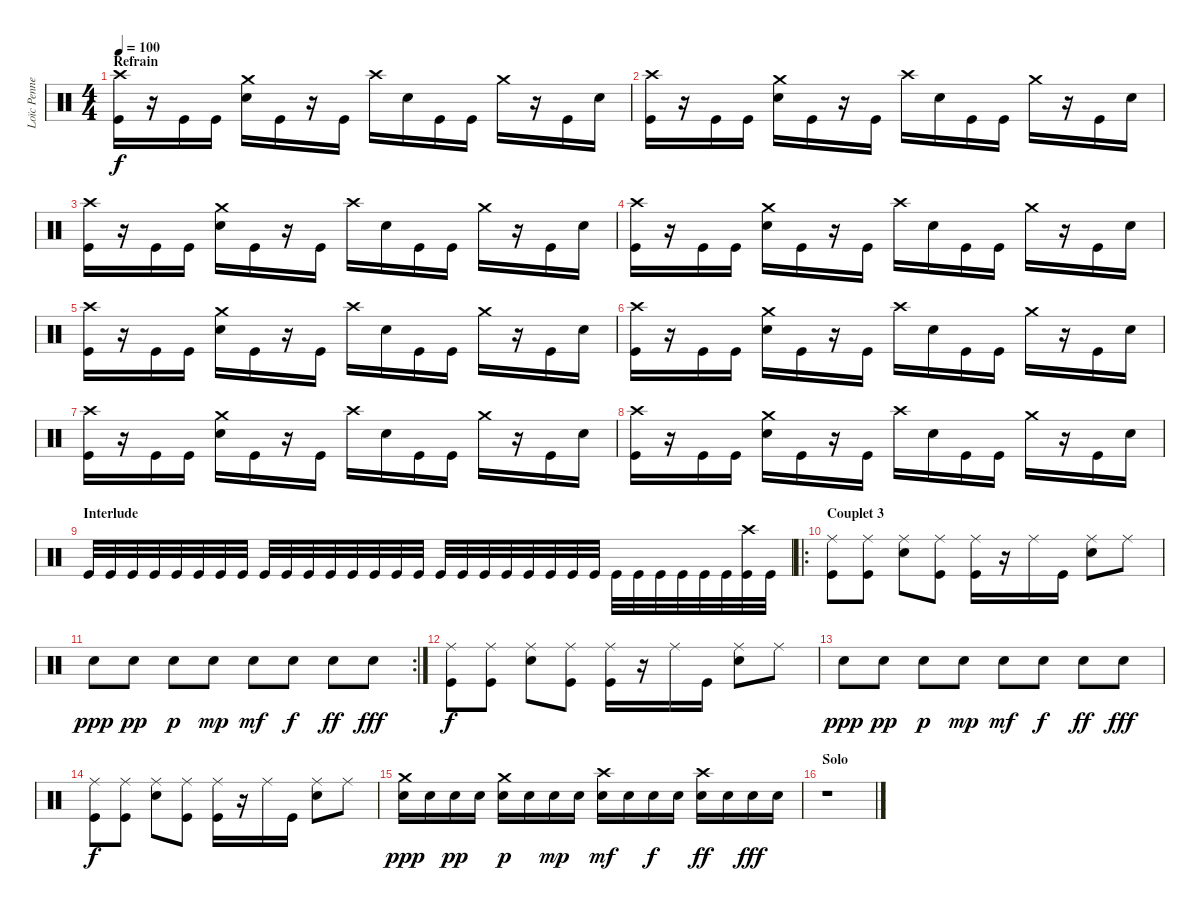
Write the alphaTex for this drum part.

\track ("Loïc Pennequin ( Batterie ) " "Loïc Penne") {instrument percussion}
\staff {score}
\articulation defaults
\ts (4 4)
\section ("" "Refrain")
\tempo 100
\clef neutral
\ks c
("Crash high (hit)" "Kick (hit)").16{dy f} r.16 "Kick (hit)".16 "Kick (hit)".16 ("Crash medium (hit)" "Electric Snare (hit)").16 "Kick (hit)".16 r.16 "Kick (hit)".16 "Crash high (hit)".16 "Electric Snare (hit)".16 "Kick (hit)".16 "Kick (hit)".16 "Crash medium (hit)".16 r.16 "Kick (hit)".16 "Electric Snare (hit)".16 |
("Crash high (hit)" "Kick (hit)").16 r.16 "Kick (hit)".16 "Kick (hit)".16 ("Crash medium (hit)" "Electric Snare (hit)").16 "Kick (hit)".16 r.16 "Kick (hit)".16 "Crash high (hit)".16 "Electric Snare (hit)".16 "Kick (hit)".16 "Kick (hit)".16 "Crash medium (hit)".16 r.16 "Kick (hit)".16 "Electric Snare (hit)".16 |
("Crash high (hit)" "Kick (hit)").16 r.16 "Kick (hit)".16 "Kick (hit)".16 ("Crash medium (hit)" "Electric Snare (hit)").16 "Kick (hit)".16 r.16 "Kick (hit)".16 "Crash high (hit)".16 "Electric Snare (hit)".16 "Kick (hit)".16 "Kick (hit)".16 "Crash medium (hit)".16 r.16 "Kick (hit)".16 "Electric Snare (hit)".16 |
("Crash high (hit)" "Kick (hit)").16 r.16 "Kick (hit)".16 "Kick (hit)".16 ("Crash medium (hit)" "Electric Snare (hit)").16 "Kick (hit)".16 r.16 "Kick (hit)".16 "Crash high (hit)".16 "Electric Snare (hit)".16 "Kick (hit)".16 "Kick (hit)".16 "Crash medium (hit)".16 r.16 "Kick (hit)".16 "Electric Snare (hit)".16 |
("Crash high (hit)" "Kick (hit)").16 r.16 "Kick (hit)".16 "Kick (hit)".16 ("Crash medium (hit)" "Electric Snare (hit)").16 "Kick (hit)".16 r.16 "Kick (hit)".16 "Crash high (hit)".16 "Electric Snare (hit)".16 "Kick (hit)".16 "Kick (hit)".16 "Crash medium (hit)".16 r.16 "Kick (hit)".16 "Electric Snare (hit)".16 |
("Crash high (hit)" "Kick (hit)").16 r.16 "Kick (hit)".16 "Kick (hit)".16 ("Crash medium (hit)" "Electric Snare (hit)").16 "Kick (hit)".16 r.16 "Kick (hit)".16 "Crash high (hit)".16 "Electric Snare (hit)".16 "Kick (hit)".16 "Kick (hit)".16 "Crash medium (hit)".16 r.16 "Kick (hit)".16 "Electric Snare (hit)".16 |
("Crash high (hit)" "Kick (hit)").16 r.16 "Kick (hit)".16 "Kick (hit)".16 ("Crash medium (hit)" "Electric Snare (hit)").16 "Kick (hit)".16 r.16 "Kick (hit)".16 "Crash high (hit)".16 "Electric Snare (hit)".16 "Kick (hit)".16 "Kick (hit)".16 "Crash medium (hit)".16 r.16 "Kick (hit)".16 "Electric Snare (hit)".16 |
("Crash high (hit)" "Kick (hit)").16 r.16 "Kick (hit)".16 "Kick (hit)".16 ("Crash medium (hit)" "Electric Snare (hit)").16 "Kick (hit)".16 r.16 "Kick (hit)".16 "Crash high (hit)".16 "Electric Snare (hit)".16 "Kick (hit)".16 "Kick (hit)".16 "Crash medium (hit)".16 r.16 "Kick (hit)".16 "Electric Snare (hit)".16 |
\section ("" "Interlude")
"Kick (hit)".32 "Kick (hit)".32 "Kick (hit)".32 "Kick (hit)".32 "Kick (hit)".32 "Kick (hit)".32 "Kick (hit)".32 "Kick (hit)".32 "Kick (hit)".32 "Kick (hit)".32 "Kick (hit)".32 "Kick (hit)".32 "Kick (hit)".32 "Kick (hit)".32 "Kick (hit)".32 "Kick (hit)".32 "Kick (hit)".32 "Kick (hit)".32 "Kick (hit)".32 "Kick (hit)".32 "Kick (hit)".32 "Kick (hit)".32 "Kick (hit)".32 "Kick (hit)".32 "Kick (hit)".32 "Kick (hit)".32 "Kick (hit)".32 "Kick (hit)".32 "Kick (hit)".32 "Kick (hit)".32 ("Crash high (hit)" "Kick (hit)").32 "Kick (hit)".32 |
\ro
\section ("" "Couplet 3")
("Ride (middle)" "Kick (hit)").8 ("Ride (middle)" "Kick (hit)").8 ("Ride (middle)" "Electric Snare (hit)").8 ("Ride (middle)" "Kick (hit)").8 ("Ride (middle)" "Kick (hit)").16 r.16 "Ride (middle)".16 "Kick (hit)".16 ("Ride (middle)" "Electric Snare (hit)").8 "Ride (middle)".8 |
\rc 2 "Electric Snare (hit)".8{dy ppp} "Electric Snare (hit)".8{dy pp} "Electric Snare (hit)".8{dy p} "Electric Snare (hit)".8{dy mp} "Electric Snare (hit)".8{dy mf} "Electric Snare (hit)".8{dy f} "Electric Snare (hit)".8{dy ff} "Electric Snare (hit)".8{dy fff}
|
("Ride (middle)" "Kick (hit)").8{dy f} ("Ride (middle)" "Kick (hit)").8 ("Ride (middle)" "Electric Snare (hit)").8 ("Ride (middle)" "Kick (hit)").8 ("Ride (middle)" "Kick (hit)").16 r.16 "Ride (middle)".16 "Kick (hit)".16 ("Ride (middle)" "Electric Snare (hit)").8 "Ride (middle)".8 |
"Electric Snare (hit)".8{dy ppp} "Electric Snare (hit)".8{dy pp} "Electric Snare (hit)".8{dy p} "Electric Snare (hit)".8{dy mp} "Electric Snare (hit)".8{dy mf} "Electric Snare (hit)".8{dy f} "Electric Snare (hit)".8{dy ff} "Electric Snare (hit)".8{dy fff} |
("Ride (middle)" "Kick (hit)").8{dy f} ("Ride (middle)" "Kick (hit)").8 ("Ride (middle)" "Electric Snare (hit)").8 ("Ride (middle)" "Kick (hit)").8 ("Ride (middle)" "Kick (hit)").16 r.16 "Ride (middle)".16 "Kick (hit)".16 ("Ride (middle)" "Electric Snare (hit)").8 "Ride (middle)".8 |
("Crash medium (hit)" "Electric Snare (hit)").16{dy ppp} "Electric Snare (hit)".16 "Electric Snare (hit)".16{dy pp} "Electric Snare (hit)".16 ("Crash medium (hit)" "Electric Snare (hit)").16{dy p} "Electric Snare (hit)".16 "Electric Snare (hit)".16{dy mp} "Electric Snare (hit)".16 ("Crash high (hit)" "Electric Snare (hit)").16{dy mf} "Electric Snare (hit)".16 "Electric Snare (hit)".16{dy f} "Electric Snare (hit)".16 ("Crash high (hit)" "Electric Snare (hit)").16{dy ff} "Electric Snare (hit)".16 "Electric Snare (hit)".16{dy fff} "Electric Snare (hit)".16 |
\section ("" "Solo")
r.1
